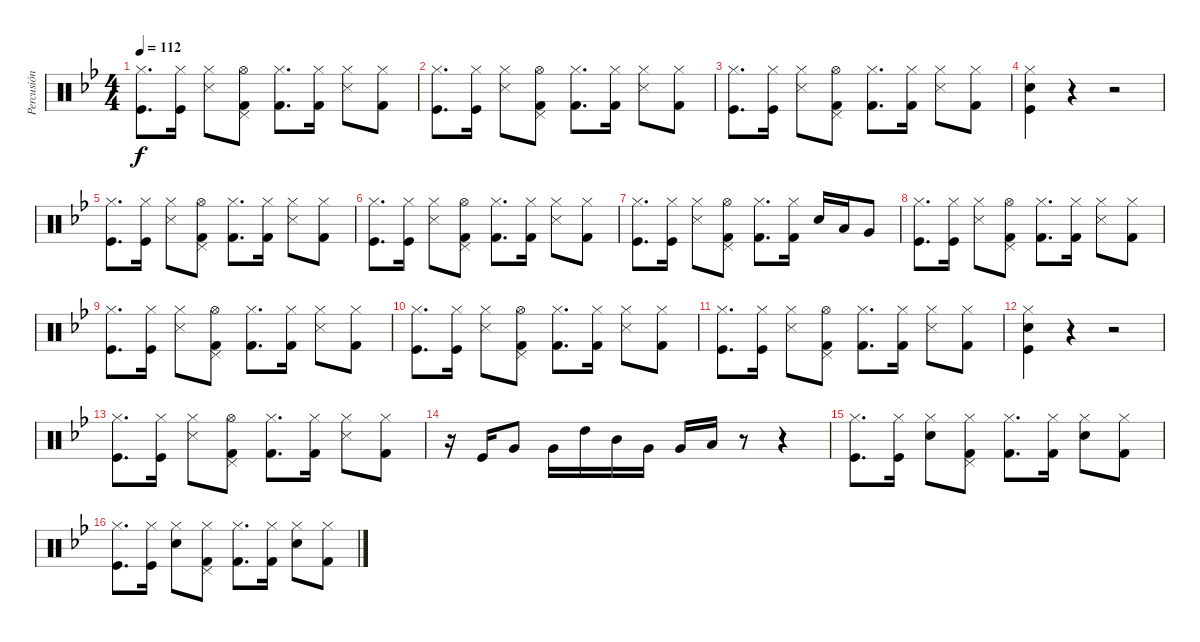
\track ("Percusión" "Percusión") {instrument percussion}
\staff {score}
\articulation defaults
\ts (4 4)
\tempo 112
\clef neutral
\ks bb
("Hi-Hat (closed)" "Kick (hit)").8{d dy f} ("Kick (hit)" "Hi-Hat (closed)").16 ("Hi-Hat (closed)" "Snare (side stick) 3").8 ("Kick (hit) 2" "Pedal Hi-Hat (hit)" "Hi-Hat (open)").8 ("Kick (hit) 2" "Hi-Hat (closed)").8{d} ("Kick (hit) 2" "Hi-Hat (closed)").16 ("Snare (side stick) 3" "Hi-Hat (closed)").8 ("Hi-Hat (closed)" "Kick (hit) 2").8 |
("Hi-Hat (closed)" "Kick (hit)").8{d} ("Kick (hit)" "Hi-Hat (closed)").16 ("Hi-Hat (closed)" "Snare (side stick) 3").8 ("Kick (hit) 2" "Pedal Hi-Hat (hit)" "Hi-Hat (open)").8 ("Kick (hit) 2" "Hi-Hat (closed)").8{d} ("Kick (hit) 2" "Hi-Hat (closed)").16 ("Snare (side stick) 3" "Hi-Hat (closed)").8 ("Hi-Hat (closed)" "Kick (hit) 2").8 |
("Hi-Hat (closed)" "Kick (hit)").8{d} ("Kick (hit)" "Hi-Hat (closed)").16 ("Hi-Hat (closed)" "Snare (side stick) 3").8 ("Kick (hit) 2" "Pedal Hi-Hat (hit)" "Hi-Hat (open)").8 ("Kick (hit) 2" "Hi-Hat (closed)").8{d} ("Kick (hit) 2" "Hi-Hat (closed)").16 ("Snare (side stick) 3" "Hi-Hat (closed)").8 ("Hi-Hat (closed)" "Kick (hit) 2").8 |
("Snare (hit) 2" "Kick (hit)" "Hi-Hat (closed)").4 r.4 r.2 |
("Hi-Hat (closed)" "Kick (hit)").8{d} ("Kick (hit)" "Hi-Hat (closed)").16 ("Hi-Hat (closed)" "Snare (side stick) 3").8 ("Kick (hit) 2" "Pedal Hi-Hat (hit)" "Hi-Hat (open)").8 ("Kick (hit) 2" "Hi-Hat (closed)").8{d} ("Kick (hit) 2" "Hi-Hat (closed)").16 ("Snare (side stick) 3" "Hi-Hat (closed)").8 ("Hi-Hat (closed)" "Kick (hit) 2").8 |
("Hi-Hat (closed)" "Kick (hit)").8{d} ("Kick (hit)" "Hi-Hat (closed)").16 ("Hi-Hat (closed)" "Snare (side stick) 3").8 ("Kick (hit) 2" "Pedal Hi-Hat (hit)" "Hi-Hat (open)").8 ("Kick (hit) 2" "Hi-Hat (closed)").8{d} ("Kick (hit) 2" "Hi-Hat (closed)").16 ("Snare (side stick) 3" "Hi-Hat (closed)").8 ("Hi-Hat (closed)" "Kick (hit) 2").8 |
("Hi-Hat (closed)" "Kick (hit)").8{d} ("Kick (hit)" "Hi-Hat (closed)").16 ("Hi-Hat (closed)" "Snare (side stick) 3").8 ("Hi-Hat (open)" "Kick (hit) 2" "Pedal Hi-Hat (hit)").8 ("Kick (hit) 2" "Hi-Hat (closed)").8{d} ("Kick (hit) 2" "Hi-Hat (closed)").16 "Snare (hit) 2".16 "Low Tom (hit)".16 "Very Low Tom (hit)".8 |
("Hi-Hat (closed)" "Kick (hit)").8{d} ("Kick (hit)" "Hi-Hat (closed)").16 ("Hi-Hat (closed)" "Snare (side stick) 3").8 ("Kick (hit) 2" "Pedal Hi-Hat (hit)" "Hi-Hat (open)").8 ("Kick (hit) 2" "Hi-Hat (closed)").8{d} ("Kick (hit) 2" "Hi-Hat (closed)").16 ("Snare (side stick) 3" "Hi-Hat (closed)").8 ("Hi-Hat (closed)" "Kick (hit) 2").8 |
("Hi-Hat (closed)" "Kick (hit)").8{d} ("Kick (hit)" "Hi-Hat (closed)").16 ("Hi-Hat (closed)" "Snare (side stick) 3").8 ("Kick (hit) 2" "Pedal Hi-Hat (hit)" "Hi-Hat (open)").8 ("Kick (hit) 2" "Hi-Hat (closed)").8{d} ("Kick (hit) 2" "Hi-Hat (closed)").16 ("Snare (side stick) 3" "Hi-Hat (closed)").8 ("Hi-Hat (closed)" "Kick (hit) 2").8 |
("Hi-Hat (closed)" "Kick (hit)").8{d} ("Kick (hit)" "Hi-Hat (closed)").16 ("Hi-Hat (closed)" "Snare (side stick) 3").8 ("Kick (hit) 2" "Pedal Hi-Hat (hit)" "Hi-Hat (open)").8 ("Kick (hit) 2" "Hi-Hat (closed)").8{d} ("Kick (hit) 2" "Hi-Hat (closed)").16 ("Snare (side stick) 3" "Hi-Hat (closed)").8 ("Hi-Hat (closed)" "Kick (hit) 2").8 |
("Hi-Hat (closed)" "Kick (hit)").8{d} ("Kick (hit)" "Hi-Hat (closed)").16 ("Hi-Hat (closed)" "Snare (side stick) 3").8 ("Kick (hit) 2" "Pedal Hi-Hat (hit)" "Hi-Hat (open)").8 ("Kick (hit) 2" "Hi-Hat (closed)").8{d} ("Kick (hit) 2" "Hi-Hat (closed)").16 ("Snare (side stick) 3" "Hi-Hat (closed)").8 ("Hi-Hat (closed)" "Kick (hit) 2").8 |
("Snare (hit) 2" "Kick (hit)" "Hi-Hat (closed)").4 r.4 r.2 |
("Hi-Hat (closed)" "Kick (hit)").8{d} ("Kick (hit)" "Hi-Hat (closed)").16 ("Hi-Hat (closed)" "Snare (side stick) 3").8 ("Kick (hit) 2" "Pedal Hi-Hat (hit)" "Hi-Hat (open)").8 ("Kick (hit) 2" "Hi-Hat (closed)").8{d} ("Kick (hit) 2" "Hi-Hat (closed)").16 ("Snare (side stick) 3" "Hi-Hat (closed)").8 ("Hi-Hat (closed)" "Kick (hit) 2").8 |
r.16 "Kick (hit)".16 "Very Low Tom (hit)".8 "Very Low Tom (hit)".16 "High Tom (hit)".16 "Mid Tom (hit)".16 "Very Low Tom (hit)".16 "Very Low Tom (hit)".16 "Low Floor Tom (hit)".16 r.8 r.4 |
("Hi-Hat (closed)" "Kick (hit)").8{d} ("Kick (hit)" "Hi-Hat (closed)").16 ("Hi-Hat (closed)" "Snare (hit) 2").8 ("Hi-Hat (closed)" "Kick (hit) 2" "Pedal Hi-Hat (hit)").8 ("Kick (hit) 2" "Hi-Hat (closed)").8{d} ("Kick (hit) 2" "Hi-Hat (closed)").16 ("Snare (hit) 2" "Hi-Hat (closed)").8 ("Hi-Hat (closed)" "Kick (hit) 2").8 |
("Hi-Hat (closed)" "Kick (hit)").8{d} ("Kick (hit)" "Hi-Hat (closed)").16 ("Hi-Hat (closed)" "Snare (hit) 2").8 ("Hi-Hat (closed)" "Kick (hit) 2" "Pedal Hi-Hat (hit)").8 ("Kick (hit) 2" "Hi-Hat (closed)").8{d} ("Kick (hit) 2" "Hi-Hat (closed)").16 ("Snare (hit) 2" "Hi-Hat (closed)").8 ("Hi-Hat (closed)" "Kick (hit) 2").8
